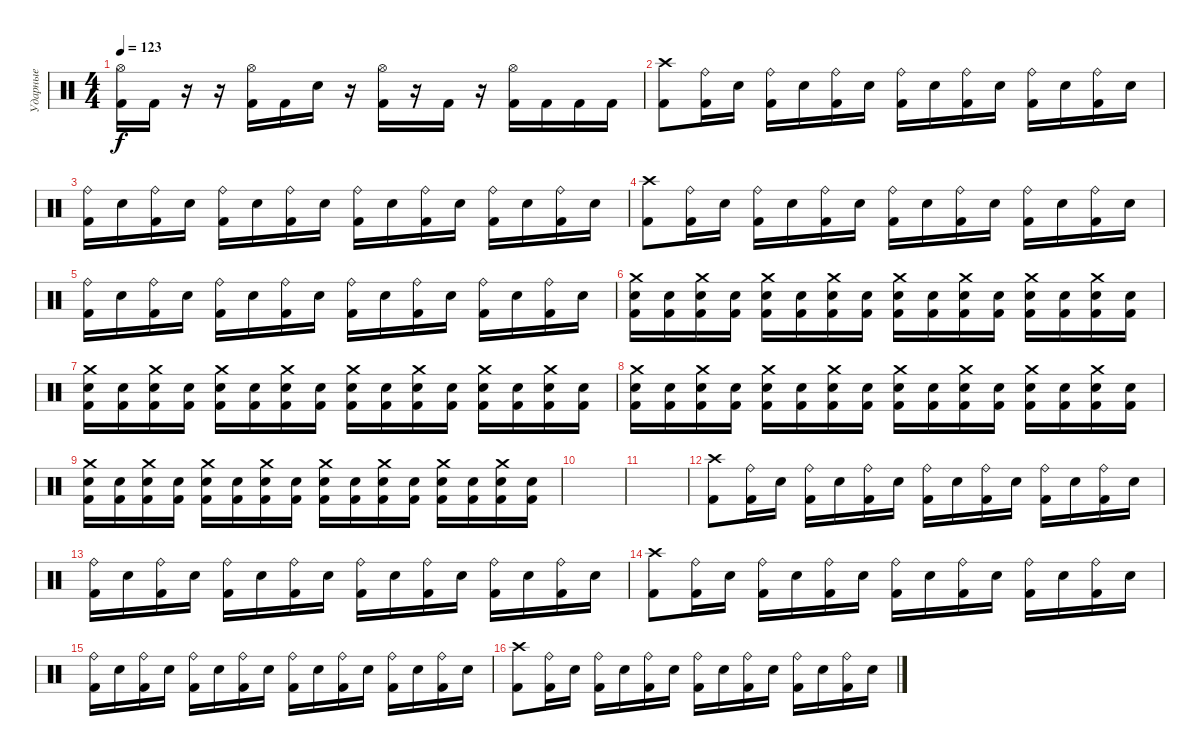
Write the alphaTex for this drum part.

\track ("Ударные" "Ударные") {instrument percussion}
\staff {score}
\articulation defaults
\ts (4 4)
\tempo 123
\clef neutral
\ks c
("Hi-Hat (open)" "Kick (hit) 2").16{dy f} "Kick (hit) 2".16 r.16 r.16 ("Hi-Hat (open)" "Kick (hit) 2").16 "Kick (hit) 2".16 "Electric Snare (hit)".16 r.16 ("Hi-Hat (open)" "Kick (hit) 2").16 r.16 "Kick (hit) 2".16 r.16 ("Hi-Hat (open)" "Kick (hit) 2").16 "Kick (hit) 2".16 "Kick (hit) 2".16 "Kick (hit) 2".16 |
("Crash high (hit)" "Kick (hit) 2").8 ("Ride (bell)" "Kick (hit) 2").16 "Electric Snare (hit)".16 ("Ride (bell)" "Kick (hit) 2").16 "Electric Snare (hit)".16 ("Ride (bell)" "Kick (hit) 2").16 "Electric Snare (hit)".16 ("Ride (bell)" "Kick (hit) 2").16 "Electric Snare (hit)".16 ("Ride (bell)" "Kick (hit) 2").16 "Electric Snare (hit)".16 ("Ride (bell)" "Kick (hit) 2").16 "Electric Snare (hit)".16 ("Ride (bell)" "Kick (hit) 2").16 "Electric Snare (hit)".16 |
("Ride (bell)" "Kick (hit) 2").16 "Electric Snare (hit)".16 ("Ride (bell)" "Kick (hit) 2").16 "Electric Snare (hit)".16 ("Ride (bell)" "Kick (hit) 2").16 "Electric Snare (hit)".16 ("Ride (bell)" "Kick (hit) 2").16 "Electric Snare (hit)".16 ("Ride (bell)" "Kick (hit) 2").16 "Electric Snare (hit)".16 ("Ride (bell)" "Kick (hit) 2").16 "Electric Snare (hit)".16 ("Ride (bell)" "Kick (hit) 2").16 "Electric Snare (hit)".16 ("Ride (bell)" "Kick (hit) 2").16 "Electric Snare (hit)".16 |
("Crash high (hit)" "Kick (hit) 2").8 ("Ride (bell)" "Kick (hit) 2").16 "Electric Snare (hit)".16 ("Ride (bell)" "Kick (hit) 2").16 "Electric Snare (hit)".16 ("Ride (bell)" "Kick (hit) 2").16 "Electric Snare (hit)".16 ("Ride (bell)" "Kick (hit) 2").16 "Electric Snare (hit)".16 ("Ride (bell)" "Kick (hit) 2").16 "Electric Snare (hit)".16 ("Ride (bell)" "Kick (hit) 2").16 "Electric Snare (hit)".16 ("Ride (bell)" "Kick (hit) 2").16 "Electric Snare (hit)".16 |
("Ride (bell)" "Kick (hit) 2").16 "Electric Snare (hit)".16 ("Ride (bell)" "Kick (hit) 2").16 "Electric Snare (hit)".16 ("Ride (bell)" "Kick (hit) 2").16 "Electric Snare (hit)".16 ("Ride (bell)" "Kick (hit) 2").16 "Electric Snare (hit)".16 ("Ride (bell)" "Kick (hit) 2").16 "Electric Snare (hit)".16 ("Ride (bell)" "Kick (hit) 2").16 "Electric Snare (hit)".16 ("Ride (bell)" "Kick (hit) 2").16 "Electric Snare (hit)".16 ("Ride (bell)" "Kick (hit) 2").16 "Electric Snare (hit)".16 |
("Crash medium (hit)" "Electric Snare (hit)" "Kick (hit) 2").16 ("Electric Snare (hit)" "Kick (hit) 2").16 ("Crash medium (hit)" "Electric Snare (hit)" "Kick (hit) 2").16 ("Electric Snare (hit)" "Kick (hit) 2").16 ("Crash medium (hit)" "Electric Snare (hit)" "Kick (hit) 2").16 ("Electric Snare (hit)" "Kick (hit) 2").16 ("Crash medium (hit)" "Electric Snare (hit)" "Kick (hit) 2").16 ("Electric Snare (hit)" "Kick (hit) 2").16 ("Crash medium (hit)" "Electric Snare (hit)" "Kick (hit) 2").16 ("Electric Snare (hit)" "Kick (hit) 2").16 ("Crash medium (hit)" "Electric Snare (hit)" "Kick (hit) 2").16 ("Electric Snare (hit)" "Kick (hit) 2").16 ("Crash medium (hit)" "Electric Snare (hit)" "Kick (hit) 2").16 ("Electric Snare (hit)" "Kick (hit) 2").16 ("Crash medium (hit)" "Electric Snare (hit)" "Kick (hit) 2").16 ("Electric Snare (hit)" "Kick (hit) 2").16 |
("Crash medium (hit)" "Electric Snare (hit)" "Kick (hit) 2").16 ("Electric Snare (hit)" "Kick (hit) 2").16 ("Crash medium (hit)" "Electric Snare (hit)" "Kick (hit) 2").16 ("Electric Snare (hit)" "Kick (hit) 2").16 ("Crash medium (hit)" "Electric Snare (hit)" "Kick (hit) 2").16 ("Electric Snare (hit)" "Kick (hit) 2").16 ("Crash medium (hit)" "Electric Snare (hit)" "Kick (hit) 2").16 ("Electric Snare (hit)" "Kick (hit) 2").16 ("Crash medium (hit)" "Electric Snare (hit)" "Kick (hit) 2").16 ("Electric Snare (hit)" "Kick (hit) 2").16 ("Crash medium (hit)" "Electric Snare (hit)" "Kick (hit) 2").16 ("Electric Snare (hit)" "Kick (hit) 2").16 ("Crash medium (hit)" "Electric Snare (hit)" "Kick (hit) 2").16 ("Electric Snare (hit)" "Kick (hit) 2").16 ("Crash medium (hit)" "Electric Snare (hit)" "Kick (hit) 2").16 ("Electric Snare (hit)" "Kick (hit) 2").16 |
("Crash medium (hit)" "Electric Snare (hit)" "Kick (hit) 2").16 ("Electric Snare (hit)" "Kick (hit) 2").16 ("Crash medium (hit)" "Electric Snare (hit)" "Kick (hit) 2").16 ("Electric Snare (hit)" "Kick (hit) 2").16 ("Crash medium (hit)" "Electric Snare (hit)" "Kick (hit) 2").16 ("Electric Snare (hit)" "Kick (hit) 2").16 ("Crash medium (hit)" "Electric Snare (hit)" "Kick (hit) 2").16 ("Electric Snare (hit)" "Kick (hit) 2").16 ("Crash medium (hit)" "Electric Snare (hit)" "Kick (hit) 2").16 ("Electric Snare (hit)" "Kick (hit) 2").16 ("Crash medium (hit)" "Electric Snare (hit)" "Kick (hit) 2").16 ("Electric Snare (hit)" "Kick (hit) 2").16 ("Crash medium (hit)" "Electric Snare (hit)" "Kick (hit) 2").16 ("Electric Snare (hit)" "Kick (hit) 2").16 ("Crash medium (hit)" "Electric Snare (hit)" "Kick (hit) 2").16 ("Electric Snare (hit)" "Kick (hit) 2").16 |
("Crash medium (hit)" "Electric Snare (hit)" "Kick (hit) 2").16 ("Electric Snare (hit)" "Kick (hit) 2").16 ("Crash medium (hit)" "Electric Snare (hit)" "Kick (hit) 2").16 ("Electric Snare (hit)" "Kick (hit) 2").16 ("Crash medium (hit)" "Electric Snare (hit)" "Kick (hit) 2").16 ("Electric Snare (hit)" "Kick (hit) 2").16 ("Crash medium (hit)" "Electric Snare (hit)" "Kick (hit) 2").16 ("Electric Snare (hit)" "Kick (hit) 2").16 ("Crash medium (hit)" "Electric Snare (hit)" "Kick (hit) 2").16 ("Electric Snare (hit)" "Kick (hit) 2").16 ("Crash medium (hit)" "Electric Snare (hit)" "Kick (hit) 2").16 ("Electric Snare (hit)" "Kick (hit) 2").16 ("Crash medium (hit)" "Electric Snare (hit)" "Kick (hit) 2").16 ("Electric Snare (hit)" "Kick (hit) 2").16 ("Crash medium (hit)" "Electric Snare (hit)" "Kick (hit) 2").16 ("Electric Snare (hit)" "Kick (hit) 2").16 |
|
|
("Crash high (hit)" "Kick (hit) 2").8 ("Ride (bell)" "Kick (hit) 2").16 "Electric Snare (hit)".16 ("Ride (bell)" "Kick (hit) 2").16 "Electric Snare (hit)".16 ("Ride (bell)" "Kick (hit) 2").16 "Electric Snare (hit)".16 ("Ride (bell)" "Kick (hit) 2").16 "Electric Snare (hit)".16 ("Ride (bell)" "Kick (hit) 2").16 "Electric Snare (hit)".16 ("Ride (bell)" "Kick (hit) 2").16 "Electric Snare (hit)".16 ("Ride (bell)" "Kick (hit) 2").16 "Electric Snare (hit)".16 |
("Ride (bell)" "Kick (hit) 2").16 "Electric Snare (hit)".16 ("Ride (bell)" "Kick (hit) 2").16 "Electric Snare (hit)".16 ("Ride (bell)" "Kick (hit) 2").16 "Electric Snare (hit)".16 ("Ride (bell)" "Kick (hit) 2").16 "Electric Snare (hit)".16 ("Ride (bell)" "Kick (hit) 2").16 "Electric Snare (hit)".16 ("Ride (bell)" "Kick (hit) 2").16 "Electric Snare (hit)".16 ("Ride (bell)" "Kick (hit) 2").16 "Electric Snare (hit)".16 ("Ride (bell)" "Kick (hit) 2").16 "Electric Snare (hit)".16 |
("Crash high (hit)" "Kick (hit) 2").8 ("Ride (bell)" "Kick (hit) 2").16 "Electric Snare (hit)".16 ("Ride (bell)" "Kick (hit) 2").16 "Electric Snare (hit)".16 ("Ride (bell)" "Kick (hit) 2").16 "Electric Snare (hit)".16 ("Ride (bell)" "Kick (hit) 2").16 "Electric Snare (hit)".16 ("Ride (bell)" "Kick (hit) 2").16 "Electric Snare (hit)".16 ("Ride (bell)" "Kick (hit) 2").16 "Electric Snare (hit)".16 ("Ride (bell)" "Kick (hit) 2").16 "Electric Snare (hit)".16 |
("Ride (bell)" "Kick (hit) 2").16 "Electric Snare (hit)".16 ("Ride (bell)" "Kick (hit) 2").16 "Electric Snare (hit)".16 ("Ride (bell)" "Kick (hit) 2").16 "Electric Snare (hit)".16 ("Ride (bell)" "Kick (hit) 2").16 "Electric Snare (hit)".16 ("Ride (bell)" "Kick (hit) 2").16 "Electric Snare (hit)".16 ("Ride (bell)" "Kick (hit) 2").16 "Electric Snare (hit)".16 ("Ride (bell)" "Kick (hit) 2").16 "Electric Snare (hit)".16 ("Ride (bell)" "Kick (hit) 2").16 "Electric Snare (hit)".16 |
("Crash high (hit)" "Kick (hit) 2").8 ("Ride (bell)" "Kick (hit) 2").16 "Electric Snare (hit)".16 ("Ride (bell)" "Kick (hit) 2").16 "Electric Snare (hit)".16 ("Ride (bell)" "Kick (hit) 2").16 "Electric Snare (hit)".16 ("Ride (bell)" "Kick (hit) 2").16 "Electric Snare (hit)".16 ("Ride (bell)" "Kick (hit) 2").16 "Electric Snare (hit)".16 ("Ride (bell)" "Kick (hit) 2").16 "Electric Snare (hit)".16 ("Ride (bell)" "Kick (hit) 2").16 "Electric Snare (hit)".16
